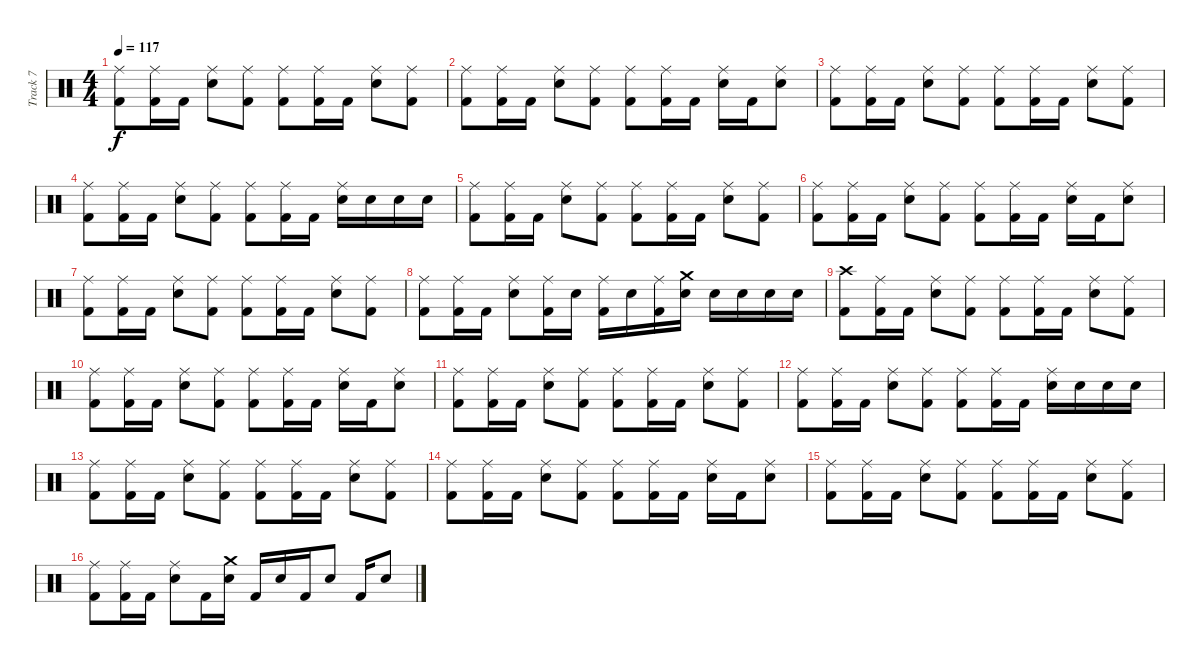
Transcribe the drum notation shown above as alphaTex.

\track ("Track 7" "Track 7") {instrument percussion}
\staff {score}
\articulation defaults
\ts (4 4)
\tempo 117
\clef neutral
\ks c
("Ride (middle)" "Kick (hit) 2").8{dy f} ("Ride (middle)" "Kick (hit) 2").16 "Kick (hit) 2".16 ("Ride (middle)" "Snare (hit) 2").8 ("Ride (middle)" "Kick (hit) 2").8 ("Ride (middle)" "Kick (hit) 2").8 ("Ride (middle)" "Kick (hit) 2").16 "Kick (hit) 2".16 ("Ride (middle)" "Snare (hit) 2").8 ("Ride (middle)" "Kick (hit) 2").8 |
("Ride (middle)" "Kick (hit) 2").8 ("Ride (middle)" "Kick (hit) 2").16 "Kick (hit) 2".16 ("Ride (middle)" "Snare (hit) 2").8 ("Ride (middle)" "Kick (hit) 2").8 ("Ride (middle)" "Kick (hit) 2").8 ("Ride (middle)" "Kick (hit) 2").16 "Kick (hit) 2".16 ("Ride (middle)" "Snare (hit) 2").16 "Kick (hit) 2".16 ("Ride (middle)" "Snare (hit) 2").8 |
("Ride (middle)" "Kick (hit) 2").8 ("Ride (middle)" "Kick (hit) 2").16 "Kick (hit) 2".16 ("Ride (middle)" "Snare (hit) 2").8 ("Ride (middle)" "Kick (hit) 2").8 ("Ride (middle)" "Kick (hit) 2").8 ("Ride (middle)" "Kick (hit) 2").16 "Kick (hit) 2".16 ("Ride (middle)" "Snare (hit) 2").8 ("Ride (middle)" "Kick (hit) 2").8 |
("Ride (middle)" "Kick (hit) 2").8 ("Ride (middle)" "Kick (hit) 2").16 "Kick (hit) 2".16 ("Ride (middle)" "Snare (hit) 2").8 ("Ride (middle)" "Kick (hit) 2").8 ("Ride (middle)" "Kick (hit) 2").8 ("Ride (middle)" "Kick (hit) 2").16 "Kick (hit) 2".16 ("Ride (middle)" "Snare (hit) 2").16 "Snare (hit) 2".16 "Snare (hit) 2".16 "Snare (hit) 2".16 |
("Ride (middle)" "Kick (hit) 2").8 ("Ride (middle)" "Kick (hit) 2").16 "Kick (hit) 2".16 ("Ride (middle)" "Snare (hit) 2").8 ("Ride (middle)" "Kick (hit) 2").8 ("Ride (middle)" "Kick (hit) 2").8 ("Ride (middle)" "Kick (hit) 2").16 "Kick (hit) 2".16 ("Ride (middle)" "Snare (hit) 2").8 ("Ride (middle)" "Kick (hit) 2").8 |
("Ride (middle)" "Kick (hit) 2").8 ("Ride (middle)" "Kick (hit) 2").16 "Kick (hit) 2".16 ("Ride (middle)" "Snare (hit) 2").8 ("Ride (middle)" "Kick (hit) 2").8 ("Ride (middle)" "Kick (hit) 2").8 ("Ride (middle)" "Kick (hit) 2").16 "Kick (hit) 2".16 ("Ride (middle)" "Snare (hit) 2").16 "Kick (hit) 2".16 ("Ride (middle)" "Snare (hit) 2").8 |
("Ride (middle)" "Kick (hit) 2").8 ("Ride (middle)" "Kick (hit) 2").16 "Kick (hit) 2".16 ("Ride (middle)" "Snare (hit) 2").8 ("Ride (middle)" "Kick (hit) 2").8 ("Ride (middle)" "Kick (hit) 2").8 ("Ride (middle)" "Kick (hit) 2").16 "Kick (hit) 2".16 ("Ride (middle)" "Snare (hit) 2").8 ("Ride (middle)" "Kick (hit) 2").8 |
("Ride (middle)" "Kick (hit) 2").8 ("Ride (middle)" "Kick (hit) 2").16 "Kick (hit) 2".16 ("Ride (middle)" "Snare (hit) 2").8 ("Ride (middle)" "Kick (hit) 2").16 "Snare (hit) 2".16 ("Ride (middle)" "Kick (hit) 2").16 "Snare (hit) 2".16 ("Ride (middle)" "Kick (hit) 2").16 ("Crash medium (hit)" "Snare (hit) 2").16 "Snare (hit) 2".16 "Snare (hit) 2".16 "Snare (hit) 2".16 "Snare (hit) 2".16 |
("Crash high (hit)" "Kick (hit) 2").8 ("Ride (middle)" "Kick (hit) 2").16 "Kick (hit) 2".16 ("Ride (middle)" "Snare (hit) 2").8 ("Ride (middle)" "Kick (hit) 2").8 ("Ride (middle)" "Kick (hit) 2").8 ("Ride (middle)" "Kick (hit) 2").16 "Kick (hit) 2".16 ("Ride (middle)" "Snare (hit) 2").8 ("Ride (middle)" "Kick (hit) 2").8 |
("Ride (middle)" "Kick (hit) 2").8 ("Ride (middle)" "Kick (hit) 2").16 "Kick (hit) 2".16 ("Ride (middle)" "Snare (hit) 2").8 ("Ride (middle)" "Kick (hit) 2").8 ("Ride (middle)" "Kick (hit) 2").8 ("Ride (middle)" "Kick (hit) 2").16 "Kick (hit) 2".16 ("Ride (middle)" "Snare (hit) 2").16 "Kick (hit) 2".16 ("Ride (middle)" "Snare (hit) 2").8 |
("Ride (middle)" "Kick (hit) 2").8 ("Ride (middle)" "Kick (hit) 2").16 "Kick (hit) 2".16 ("Ride (middle)" "Snare (hit) 2").8 ("Ride (middle)" "Kick (hit) 2").8 ("Ride (middle)" "Kick (hit) 2").8 ("Ride (middle)" "Kick (hit) 2").16 "Kick (hit) 2".16 ("Ride (middle)" "Snare (hit) 2").8 ("Ride (middle)" "Kick (hit) 2").8 |
("Ride (middle)" "Kick (hit) 2").8 ("Ride (middle)" "Kick (hit) 2").16 "Kick (hit) 2".16 ("Ride (middle)" "Snare (hit) 2").8 ("Ride (middle)" "Kick (hit) 2").8 ("Ride (middle)" "Kick (hit) 2").8 ("Ride (middle)" "Kick (hit) 2").16 "Kick (hit) 2".16 ("Ride (middle)" "Snare (hit) 2").16 "Snare (hit) 2".16 "Snare (hit) 2".16 "Snare (hit) 2".16 |
("Ride (middle)" "Kick (hit) 2").8 ("Ride (middle)" "Kick (hit) 2").16 "Kick (hit) 2".16 ("Ride (middle)" "Snare (hit) 2").8 ("Ride (middle)" "Kick (hit) 2").8 ("Ride (middle)" "Kick (hit) 2").8 ("Ride (middle)" "Kick (hit) 2").16 "Kick (hit) 2".16 ("Ride (middle)" "Snare (hit) 2").8 ("Ride (middle)" "Kick (hit) 2").8 |
("Ride (middle)" "Kick (hit) 2").8 ("Ride (middle)" "Kick (hit) 2").16 "Kick (hit) 2".16 ("Ride (middle)" "Snare (hit) 2").8 ("Ride (middle)" "Kick (hit) 2").8 ("Ride (middle)" "Kick (hit) 2").8 ("Ride (middle)" "Kick (hit) 2").16 "Kick (hit) 2".16 ("Ride (middle)" "Snare (hit) 2").16 "Kick (hit) 2".16 ("Ride (middle)" "Snare (hit) 2").8 |
("Ride (middle)" "Kick (hit) 2").8 ("Ride (middle)" "Kick (hit) 2").16 "Kick (hit) 2".16 ("Ride (middle)" "Snare (hit) 2").8 ("Ride (middle)" "Kick (hit) 2").8 ("Ride (middle)" "Kick (hit) 2").8 ("Ride (middle)" "Kick (hit) 2").16 "Kick (hit) 2".16 ("Ride (middle)" "Snare (hit) 2").8 ("Ride (middle)" "Kick (hit) 2").8 |
("Ride (middle)" "Kick (hit) 2").8 ("Ride (middle)" "Kick (hit) 2").16 "Kick (hit) 2".16 ("Ride (middle)" "Snare (hit) 2").8 "Kick (hit) 2".16 ("Crash medium (hit)" "Snare (hit) 2").16 "Kick (hit) 2".16 "Snare (hit) 2".16 "Kick (hit) 2".16 "Snare (hit) 2".8 "Kick (hit) 2".16 "Snare (hit) 2".8
